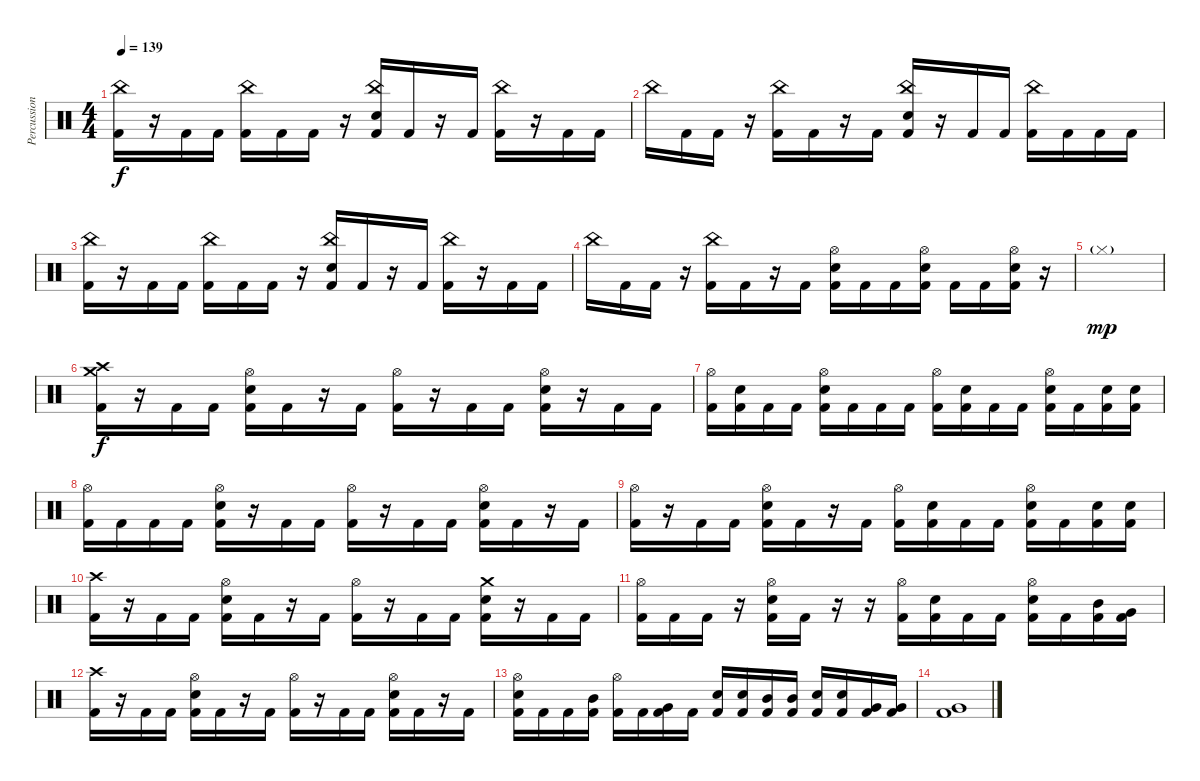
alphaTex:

\track ("Percussion" "Percussion") {instrument percussion}
\staff {score}
\articulation defaults
\ts (4 4)
\tempo 139
\clef neutral
\ks c
("Kick (hit) 2" "China (hit)").16{dy f} r.16 "Kick (hit) 2".16 "Kick (hit) 2".16 ("Kick (hit) 2" "China (hit)").16 "Kick (hit) 2".16 "Kick (hit) 2".16 r.16 ("Kick (hit) 2" "Electric Snare (hit)" "China (hit)").16 "Kick (hit) 2".16 r.16 "Kick (hit) 2".16 ("Kick (hit) 2" "China (hit)").16 r.16 "Kick (hit) 2".16 "Kick (hit) 2".16 |
"China (hit)".16 "Kick (hit) 2".16 "Kick (hit) 2".16 r.16 ("Kick (hit) 2" "China (hit)").16 "Kick (hit) 2".16 r.16 "Kick (hit) 2".16 ("Kick (hit) 2" "Electric Snare (hit)" "China (hit)").16 r.16 "Kick (hit) 2".16 "Kick (hit) 2".16 ("Kick (hit) 2" "China (hit)").16 "Kick (hit) 2".16 "Kick (hit) 2".16 "Kick (hit) 2".16 |
("Kick (hit) 2" "China (hit)").16 r.16 "Kick (hit) 2".16 "Kick (hit) 2".16 ("Kick (hit) 2" "China (hit)").16 "Kick (hit) 2".16 "Kick (hit) 2".16 r.16 ("Kick (hit) 2" "Electric Snare (hit)" "China (hit)").16 "Kick (hit) 2".16 r.16 "Kick (hit) 2".16 ("Kick (hit) 2" "China (hit)").16 r.16 "Kick (hit) 2".16 "Kick (hit) 2".16 |
"China (hit)".16 "Kick (hit) 2".16 "Kick (hit) 2".16 r.16 ("Kick (hit) 2" "China (hit)").16 "Kick (hit) 2".16 r.16 "Kick (hit) 2".16 ("Kick (hit) 2" "Electric Snare (hit)" "Hi-Hat (open)").16 "Kick (hit) 2".16 "Kick (hit) 2".16 ("Kick (hit) 2" "Electric Snare (hit)" "Hi-Hat (open)").16 "Kick (hit) 2".16 "Kick (hit) 2".16 ("Kick (hit) 2" "Electric Snare (hit)" "Hi-Hat (open)").16 r.16 |
"Hi-Hat (closed)"{g}.1{dy mp} |
("Kick (hit) 2" "Crash medium (hit)" "Crash high (hit)").16{dy f} r.16 "Kick (hit) 2".16 "Kick (hit) 2".16 ("Kick (hit) 2" "Electric Snare (hit)" "Hi-Hat (open)").16 "Kick (hit) 2".16 r.16 "Kick (hit) 2".16 ("Kick (hit) 2" "Hi-Hat (open)").16 r.16 "Kick (hit) 2".16 "Kick (hit) 2".16 ("Kick (hit) 2" "Electric Snare (hit)" "Hi-Hat (open)").16 r.16 "Kick (hit) 2".16 "Kick (hit) 2".16 |
("Kick (hit) 2" "Hi-Hat (open)").16 ("Kick (hit) 2" "Electric Snare (hit)").16 "Kick (hit) 2".16 "Kick (hit) 2".16 ("Kick (hit) 2" "Electric Snare (hit)" "Hi-Hat (open)").16 "Kick (hit) 2".16 "Kick (hit) 2".16 "Kick (hit) 2".16 ("Kick (hit) 2" "Hi-Hat (open)").16 ("Kick (hit) 2" "Electric Snare (hit)").16 "Kick (hit) 2".16 "Kick (hit) 2".16 ("Kick (hit) 2" "Electric Snare (hit)" "Hi-Hat (open)").16 "Kick (hit) 2".16 ("Kick (hit) 2" "Electric Snare (hit)").16 ("Kick (hit) 2" "Electric Snare (hit)").16 |
("Kick (hit) 2" "Hi-Hat (open)").16 "Kick (hit) 2".16 "Kick (hit) 2".16 "Kick (hit) 2".16 ("Kick (hit) 2" "Electric Snare (hit)" "Hi-Hat (open)").16 r.16 "Kick (hit) 2".16 "Kick (hit) 2".16 ("Kick (hit) 2" "Hi-Hat (open)").16 r.16 "Kick (hit) 2".16 "Kick (hit) 2".16 ("Kick (hit) 2" "Electric Snare (hit)" "Hi-Hat (open)").16 "Kick (hit) 2".16 r.16 "Kick (hit) 2".16 |
("Kick (hit) 2" "Hi-Hat (open)").16 r.16 "Kick (hit) 2".16 "Kick (hit) 2".16 ("Kick (hit) 2" "Electric Snare (hit)" "Hi-Hat (open)").16 "Kick (hit) 2".16 r.16 "Kick (hit) 2".16 ("Kick (hit) 2" "Hi-Hat (open)").16 ("Kick (hit) 2" "Electric Snare (hit)").16 "Kick (hit) 2".16 "Kick (hit) 2".16 ("Kick (hit) 2" "Electric Snare (hit)" "Hi-Hat (open)").16 "Kick (hit) 2".16 ("Kick (hit) 2" "Electric Snare (hit)").16 ("Kick (hit) 2" "Electric Snare (hit)").16 |
("Kick (hit) 2" "Crash high (hit)").16 r.16 "Kick (hit) 2".16 "Kick (hit) 2".16 ("Kick (hit) 2" "Electric Snare (hit)" "Hi-Hat (open)").16 "Kick (hit) 2".16 r.16 "Kick (hit) 2".16 ("Kick (hit) 2" "Hi-Hat (open)").16 r.16 "Kick (hit) 2".16 "Kick (hit) 2".16 ("Kick (hit) 2" "Electric Snare (hit)" "Crash medium (hit)").16 r.16 "Kick (hit) 2".16 "Kick (hit) 2".16 |
("Kick (hit) 2" "Hi-Hat (open)").16 "Kick (hit) 2".16 "Kick (hit) 2".16 r.16 ("Kick (hit) 2" "Electric Snare (hit)" "Hi-Hat (open)").16 "Kick (hit) 2".16 r.16 r.16 ("Kick (hit) 2" "Hi-Hat (open)").16 ("Kick (hit) 2" "Electric Snare (hit)").16 "Kick (hit) 2".16 "Kick (hit) 2".16 ("Kick (hit) 2" "Electric Snare (hit)" "Hi-Hat (open)").16 "Kick (hit) 2".16 ("Kick (hit) 2" "Mid Tom (hit)").16 ("Kick (hit) 2" "Very Low Tom (hit)").16 |
("Kick (hit) 2" "Crash high (hit)").16 r.16 "Kick (hit) 2".16 "Kick (hit) 2".16 ("Kick (hit) 2" "Electric Snare (hit)" "Hi-Hat (open)").16 "Kick (hit) 2".16 r.16 "Kick (hit) 2".16 ("Kick (hit) 2" "Hi-Hat (open)").16 r.16 "Kick (hit) 2".16 "Kick (hit) 2".16 ("Kick (hit) 2" "Electric Snare (hit)" "Hi-Hat (open)").16 "Kick (hit) 2".16 r.16 "Kick (hit) 2".16 |
("Kick (hit) 2" "Electric Snare (hit)" "Hi-Hat (open)").16 "Kick (hit) 2".16 "Kick (hit) 2".16 ("Kick (hit) 2" "Mid Tom (hit)").16 ("Kick (hit) 2" "Hi-Hat (open)").16 "Kick (hit) 2".16 ("Kick (hit) 2" "Very Low Tom (hit)").16 "Kick (hit) 2".16 ("Kick (hit) 2" "Electric Snare (hit)").16 ("Kick (hit) 2" "Electric Snare (hit)").16 ("Kick (hit) 2" "Mid Tom (hit)").16 ("Kick (hit) 2" "Mid Tom (hit)").16 ("Kick (hit) 2" "Electric Snare (hit)").16 ("Kick (hit) 2" "Electric Snare (hit)").16 ("Kick (hit) 2" "Very Low Tom (hit)").16 ("Kick (hit) 2" "Very Low Tom (hit)").16 |
("Kick (hit) 2" "Very Low Tom (hit)").1
